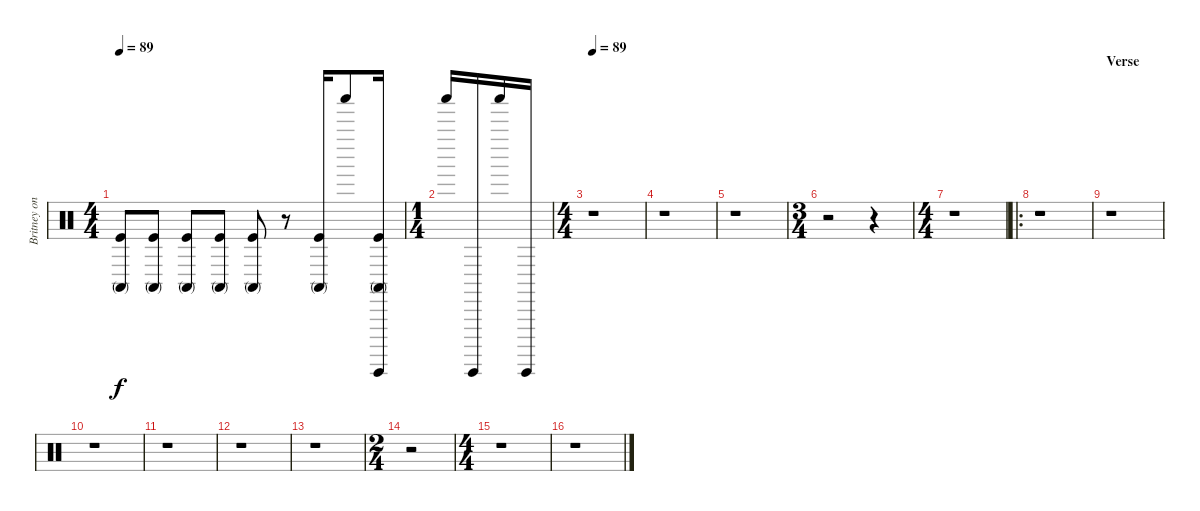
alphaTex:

\track ("Britney on mike" "Britney on") {instrument percussion}
\staff {score}
\articulation defaults
\ts (4 4)
\tempo 89
\tempo 120
\tempo 89
\clef neutral
\ks c
("Conga high (mute)" "Kick (hit)").8{dy f} ("Conga high (mute)" "Kick (hit)").8 ("Conga high (mute)" "Kick (hit)").8 ("Conga high (mute)" "Kick (hit)").8 ("Conga high (mute)" "Kick (hit)").8 r.8 ("Conga high (mute)" "Kick (hit)").16 "Shaker (hit)".8 ("Conga high (mute)" "Kick (hit)" "Guiro (hit)").16 |
\ts (1 4)
"Shaker (hit)".16 "Guiro (hit)".16 "Shaker (hit)".16 "Guiro (hit)".16 |
\ts (4 4)
\tempo 89
r.1 |
r.1 |
r.1 |
\ts (3 4)
r.2 r.4 |
\ts (4 4)
r.1 |
\ro
r.1 |
\section ("" "Verse")
r.1 |
r.1 |
r.1 |
r.1 |
r.1 |
\ts (2 4)
r.2 |
\ts (4 4)
r.1 |
r.1
